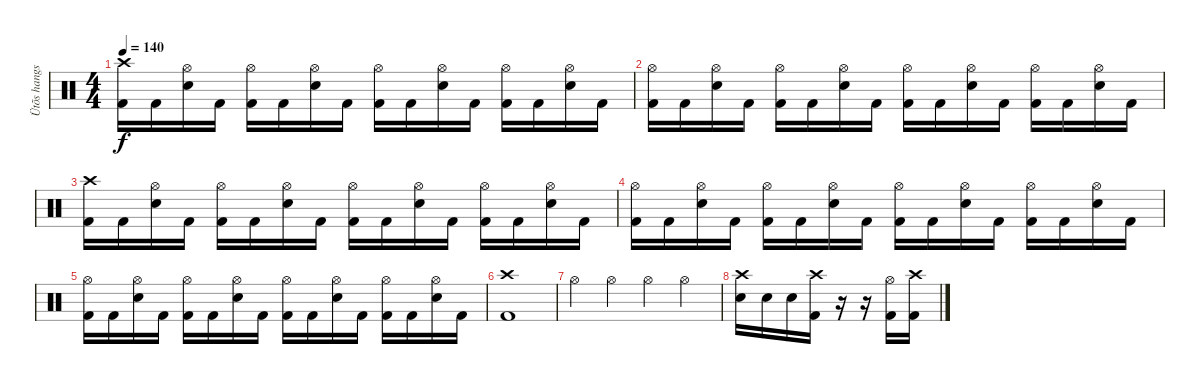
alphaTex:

\track ("Ütõs hangszer" "Ütõs hangs") {instrument percussion}
\staff {score}
\articulation defaults
\ts (4 4)
\tempo 140
\clef neutral
\ks c
("Crash high (hit)" "Kick (hit) 2").16{dy f} "Kick (hit) 2".16 ("Hi-Hat (open)" "Snare (hit) 2").16 "Kick (hit) 2".16 ("Hi-Hat (open)" "Kick (hit) 2").16 "Kick (hit) 2".16 ("Hi-Hat (open)" "Snare (hit) 2").16 "Kick (hit) 2".16 ("Hi-Hat (open)" "Kick (hit) 2").16 "Kick (hit) 2".16 ("Hi-Hat (open)" "Snare (hit) 2").16 "Kick (hit) 2".16 ("Hi-Hat (open)" "Kick (hit) 2").16 "Kick (hit) 2".16 ("Hi-Hat (open)" "Snare (hit) 2").16 "Kick (hit) 2".16 |
("Hi-Hat (open)" "Kick (hit) 2").16 "Kick (hit) 2".16 ("Hi-Hat (open)" "Snare (hit) 2").16 "Kick (hit) 2".16 ("Hi-Hat (open)" "Kick (hit) 2").16 "Kick (hit) 2".16 ("Hi-Hat (open)" "Snare (hit) 2").16 "Kick (hit) 2".16 ("Hi-Hat (open)" "Kick (hit) 2").16 "Kick (hit) 2".16 ("Hi-Hat (open)" "Snare (hit) 2").16 "Kick (hit) 2".16 ("Hi-Hat (open)" "Kick (hit) 2").16 "Kick (hit) 2".16 ("Hi-Hat (open)" "Snare (hit) 2").16 "Kick (hit) 2".16 |
("Crash high (hit)" "Kick (hit) 2").16 "Kick (hit) 2".16 ("Hi-Hat (open)" "Snare (hit) 2").16 "Kick (hit) 2".16 ("Hi-Hat (open)" "Kick (hit) 2").16 "Kick (hit) 2".16 ("Hi-Hat (open)" "Snare (hit) 2").16 "Kick (hit) 2".16 ("Hi-Hat (open)" "Kick (hit) 2").16 "Kick (hit) 2".16 ("Hi-Hat (open)" "Snare (hit) 2").16 "Kick (hit) 2".16 ("Hi-Hat (open)" "Kick (hit) 2").16 "Kick (hit) 2".16 ("Hi-Hat (open)" "Snare (hit) 2").16 "Kick (hit) 2".16 |
("Hi-Hat (open)" "Kick (hit) 2").16 "Kick (hit) 2".16 ("Hi-Hat (open)" "Snare (hit) 2").16 "Kick (hit) 2".16 ("Hi-Hat (open)" "Kick (hit) 2").16 "Kick (hit) 2".16 ("Hi-Hat (open)" "Snare (hit) 2").16 "Kick (hit) 2".16 ("Hi-Hat (open)" "Kick (hit) 2").16 "Kick (hit) 2".16 ("Hi-Hat (open)" "Snare (hit) 2").16 "Kick (hit) 2".16 ("Hi-Hat (open)" "Kick (hit) 2").16 "Kick (hit) 2".16 ("Hi-Hat (open)" "Snare (hit) 2").16 "Kick (hit) 2".16 |
("Hi-Hat (open)" "Kick (hit) 2").16 "Kick (hit) 2".16 ("Hi-Hat (open)" "Snare (hit) 2").16 "Kick (hit) 2".16 ("Hi-Hat (open)" "Kick (hit) 2").16 "Kick (hit) 2".16 ("Hi-Hat (open)" "Snare (hit) 2").16 "Kick (hit) 2".16 ("Hi-Hat (open)" "Kick (hit) 2").16 "Kick (hit) 2".16 ("Hi-Hat (open)" "Snare (hit) 2").16 "Kick (hit) 2".16 ("Hi-Hat (open)" "Kick (hit) 2").16 "Kick (hit) 2".16 ("Hi-Hat (open)" "Snare (hit) 2").16 "Kick (hit) 2".16 |
("Crash high (hit)" "Kick (hit) 2").1 |
"Hi-Hat (open)".4 "Hi-Hat (open)".4 "Hi-Hat (open)".4 "Hi-Hat (open)".4 |
("Crash high (hit)" "Snare (hit) 2").16 "Snare (hit) 2".16 "Snare (hit) 2".16 ("Crash high (hit)" "Kick (hit) 2").16 r.16 r.16 ("Hi-Hat (open)" "Kick (hit) 2").16 ("Crash high (hit)" "Kick (hit) 2").16
